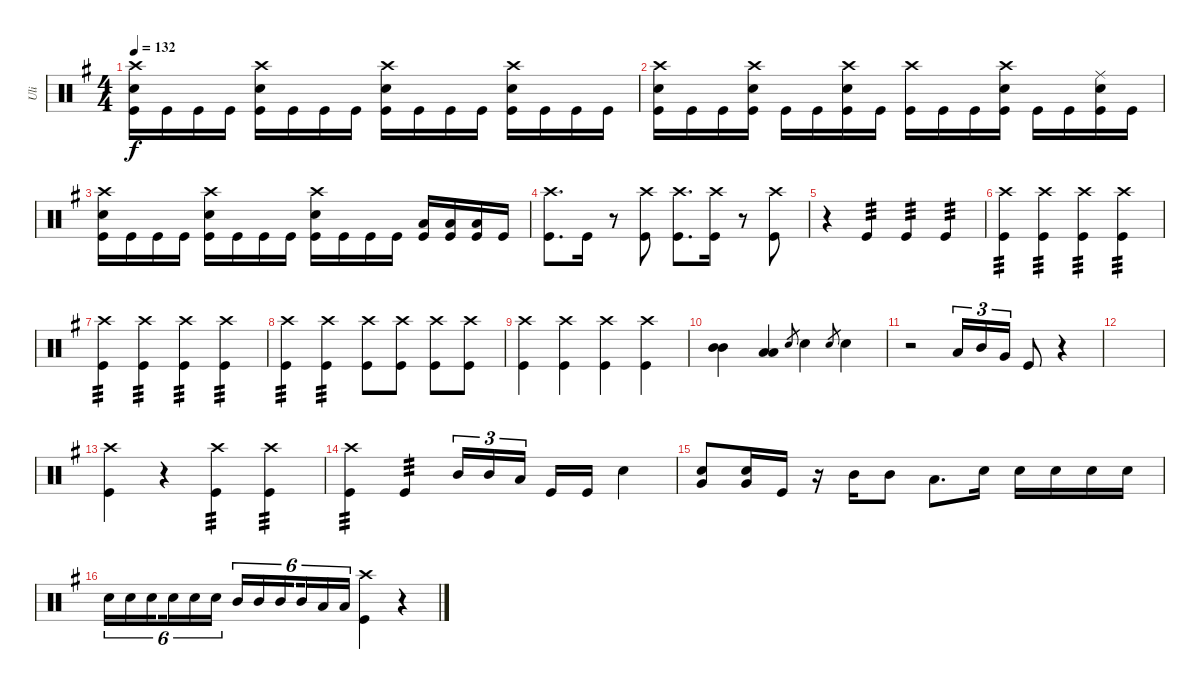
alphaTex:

\track ("Uli" "Uli") {instrument percussion}
\staff {score}
\articulation defaults
\ts (4 4)
\tempo 132
\clef neutral
\ks eminor
("Crash high (hit)" "Snare (hit) 2" "Kick (hit)").16{dy f} "Kick (hit)".16 "Kick (hit)".16 "Kick (hit)".16 ("Crash high (hit)" "Snare (hit) 2" "Kick (hit)").16 "Kick (hit)".16 "Kick (hit)".16 "Kick (hit)".16 ("Crash high (hit)" "Snare (hit) 2" "Kick (hit)").16 "Kick (hit)".16 "Kick (hit)".16 "Kick (hit)".16 ("Crash high (hit)" "Snare (hit) 2" "Kick (hit)").16 "Kick (hit)".16 "Kick (hit)".16 "Kick (hit)".16 |
("Crash high (hit)" "Snare (hit) 2" "Kick (hit)").16 "Kick (hit)".16 "Kick (hit)".16 ("Crash high (hit)" "Snare (hit) 2" "Kick (hit)").16 "Kick (hit)".16 "Kick (hit)".16 ("Crash high (hit)" "Snare (hit) 2" "Kick (hit)").16 "Kick (hit)".16 ("Crash high (hit)" "Kick (hit)").16 "Kick (hit)".16 "Kick (hit)".16 ("Crash high (hit)" "Snare (hit) 2" "Kick (hit)").16 "Kick (hit)".16 "Kick (hit)".16 ("Ride (middle)" "Snare (hit) 2" "Kick (hit)").16 "Kick (hit)".16 |
("Crash high (hit)" "Snare (hit) 2" "Kick (hit)").16 "Kick (hit)".16 "Kick (hit)".16 "Kick (hit)".16 ("Crash high (hit)" "Snare (hit) 2" "Kick (hit)").16 "Kick (hit)".16 "Kick (hit)".16 "Kick (hit)".16 ("Crash high (hit)" "Snare (hit) 2" "Kick (hit)").16 "Kick (hit)".16 "Kick (hit)".16 "Kick (hit)".16 ("Low Tom (hit)" "Kick (hit)").16 ("Low Tom (hit)" "Kick (hit)").16 ("Low Tom (hit)" "Kick (hit)").16 "Kick (hit)".16 |
("Crash high (hit)" "Kick (hit)").8{d} "Kick (hit)".16 r.8 ("Crash high (hit)" "Kick (hit)").8 ("Crash high (hit)" "Kick (hit)").8{d} ("Crash high (hit)" "Kick (hit)").16 r.8 ("Crash high (hit)" "Kick (hit)").8 |
r.4 "Kick (hit)".4{tp 3} "Kick (hit)".4{tp 3} "Kick (hit)".4{tp 3} |
("Crash high (hit)" "Kick (hit)").4{tp 3} ("Crash high (hit)" "Kick (hit)").4{tp 3} ("Crash high (hit)" "Kick (hit)").4{tp 3} ("Crash high (hit)" "Kick (hit)").4{tp 3} |
("Crash high (hit)" "Kick (hit)").4{tp 3} ("Crash high (hit)" "Kick (hit)").4{tp 3} ("Crash high (hit)" "Kick (hit)").4{tp 3} ("Crash high (hit)" "Kick (hit)").4{tp 3} |
("Crash high (hit)" "Kick (hit)").4{tp 3} ("Crash high (hit)" "Kick (hit)").4{tp 3} ("Crash high (hit)" "Kick (hit)").8 ("Crash high (hit)" "Kick (hit)").8 ("Crash high (hit)" "Kick (hit)").8 ("Crash high (hit)" "Kick (hit)").8 |
("Crash high (hit)" "Kick (hit)").4 ("Crash high (hit)" "Kick (hit)").4 ("Crash high (hit)" "Kick (hit)").4 ("Crash high (hit)" "Kick (hit)").4 |
("Mid Tom (hit)" "Mid Tom (hit)").4 ("Low Tom (hit)" "Low Tom (hit)").4 "Snare (hit) 2".8{gr} "Snare (hit) 2".4 "Snare (hit) 2".8{gr} "Snare (hit) 2".4 |
r.2 "Low Tom (hit)".16{tu (3 2)} "Mid Tom (hit)".16{tu (3 2)} "Very Low Tom (hit)".16{tu (3 2)} "Kick (hit)".8 r.4 |
|
("Crash high (hit)" "Kick (hit)").4 r.4 ("Crash high (hit)" "Kick (hit)").4{tp 3} ("Crash high (hit)" "Kick (hit)").4{tp 3} |
("Crash high (hit)" "Kick (hit)").4{tp 3} "Kick (hit)".4{tp 3} "Mid Tom (hit)".16{tu (3 2)} "Mid Tom (hit)".16{tu (3 2)} "Low Tom (hit)".16{tu (3 2) beam splitsecondary} "Kick (hit)".16 "Kick (hit)".16 "Snare (hit) 2".4 |
("Snare (hit) 2" "Very Low Tom (hit)").8 ("Snare (hit) 2" "Very Low Tom (hit)").16 "Kick (hit)".16 r.16 "Mid Tom (hit)".16 "Mid Tom (hit)".8 "Low Tom (hit)".8{d} "Snare (hit) 2".16 "Snare (hit) 2".16 "Snare (hit) 2".16 "Snare (hit) 2".16 "Snare (hit) 2".16 |
"Snare (hit) 2".16{tu (6 4)} "Snare (hit) 2".16{tu (6 4)} "Snare (hit) 2".16{tu (6 4) beam splitsecondary} "Snare (hit) 2".16{tu (6 4)} "Snare (hit) 2".16{tu (6 4)} "Snare (hit) 2".16{tu (6 4)} "Mid Tom (hit)".16{tu (6 4)} "Mid Tom (hit)".16{tu (6 4)} "Mid Tom (hit)".16{tu (6 4) beam splitsecondary} "Mid Tom (hit)".16{tu (6 4)} "Low Tom (hit)".16{tu (6 4)} "Low Tom (hit)".16{tu (6 4)} ("Crash high (hit)" "Kick (hit)").4 r.4
